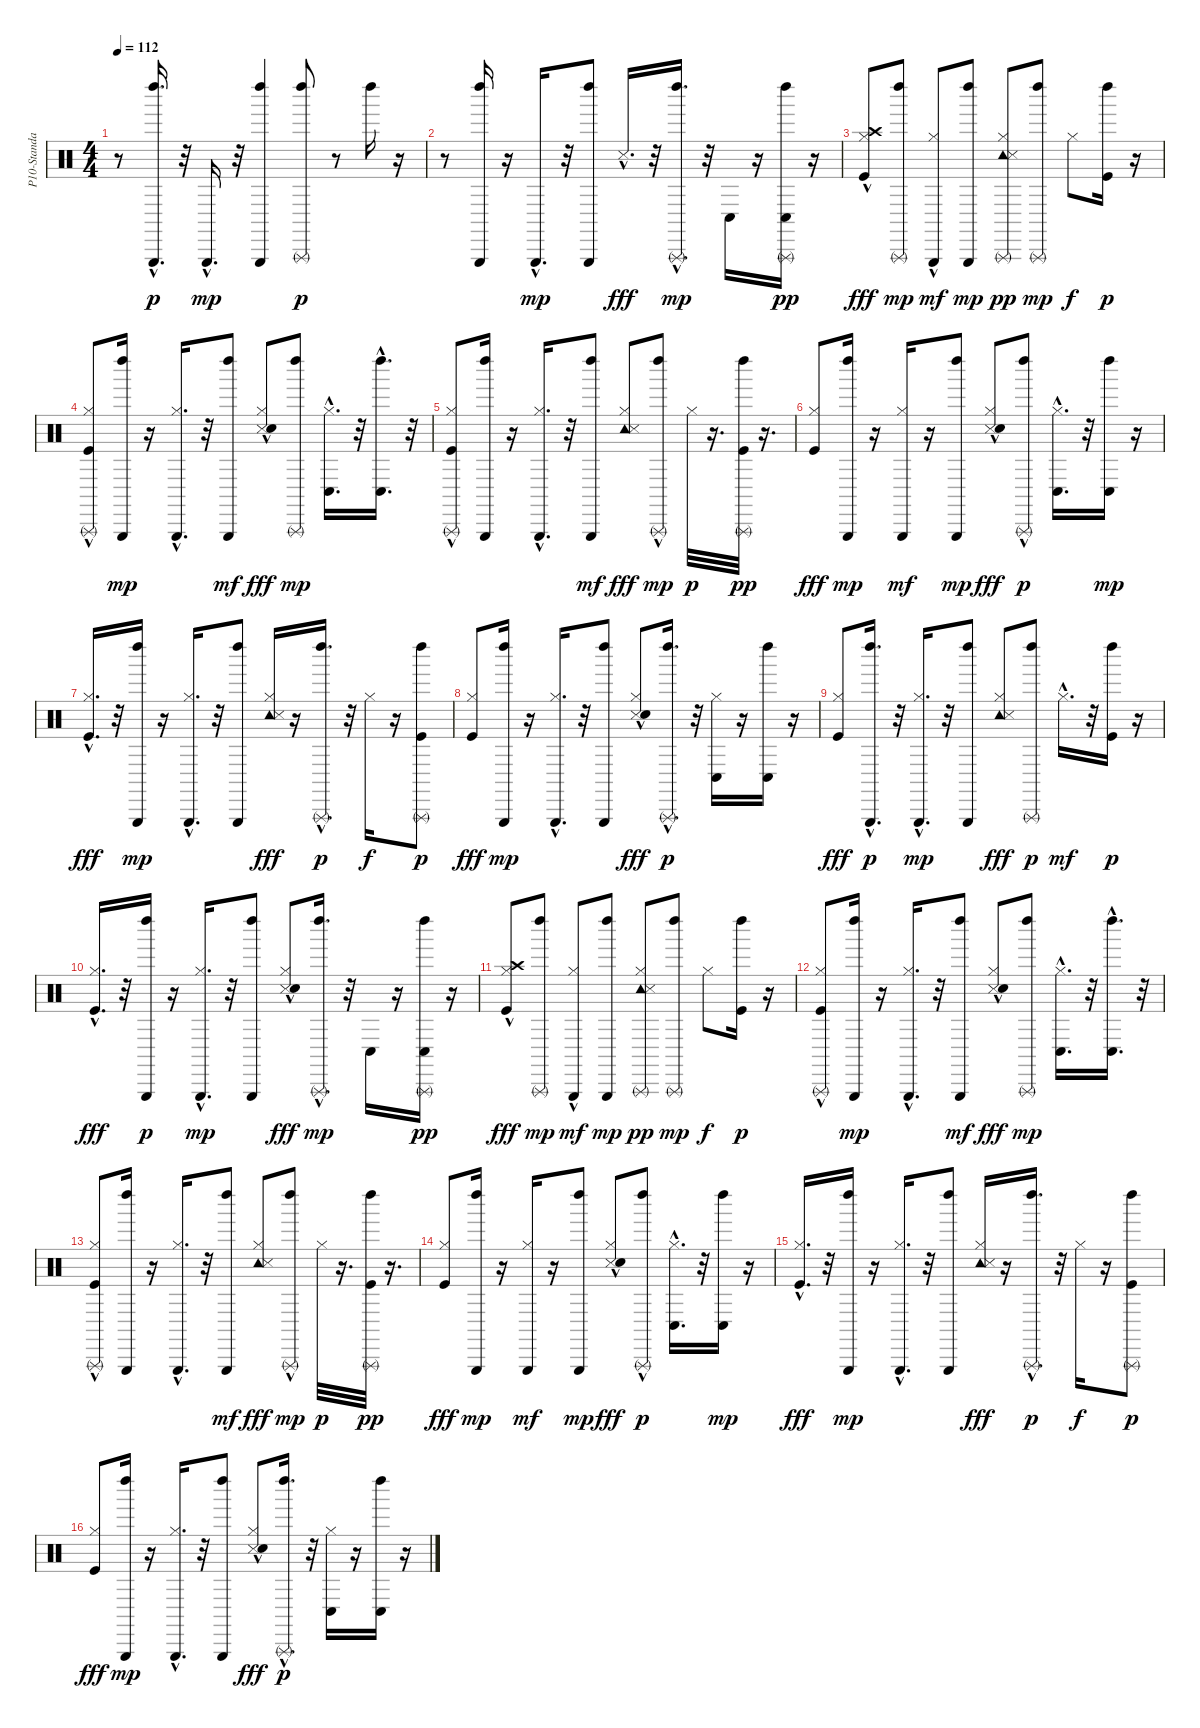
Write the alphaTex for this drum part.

\track ("P10-Standard Kit" "P10-Standa") {instrument percussion}
\staff {score}
\articulation defaults
\ts (4 4)
\tempo 112
\clef neutral
\ks c
r.8{dy p} ("Triangle (hit)"{hac} "Left Maraca (hit)").16{d} r.32 "Triangle (hit)"{hac}.16{d dy mp} r.32 ("Left Maraca (hit)" "Triangle (hit)").4 ("Triangle (rnute)" "Left Maraca (hit)").8{dy p} r.8 "Left Maraca (hit)".16 r.16 |
r.8 ("Triangle (hit)" "Left Maraca (hit)").16 r.16 "Triangle (hit)"{hac}.16{d dy mp} r.32 ("Triangle (hit)" "Left Maraca (hit)").8 "Snare (side stick) 3"{hac}.16{d dy fff} r.32 ("Triangle (rnute)"{hac} "Left Maraca (hit)").16{d dy mp} r.32 "Conga low (hit)".16 r.16 ("Triangle (rnute)" "Left Maraca (hit)" "Conga low (hit)").16{dy pp} r.16 |
("Hi-Hat (closed)" "Kick (hit)"{hac} "Crash high (hit)").8{dy fff} ("Left Maraca (hit)" "Triangle (rnute)").8{dy mp} ("Hi-Hat (closed)" "Triangle (hit)"{hac}).8{dy mf} ("Triangle (hit)" "Left Maraca (hit)").8{dy mp} ("Hi-Hat (closed)" "Tambourine (hit)" "Snare (side stick) 3" "Triangle (rnute)").8{dy pp} ("Left Maraca (hit)" "Triangle (rnute)").8{dy mp} "Hi-Hat (closed)".8{dy f} ("Kick (hit)" "Left Maraca (hit)").16{dy p} r.16 |
("Hi-Hat (closed)" "Kick (hit)"{hac} "Triangle (rnute)").8 ("Left Maraca (hit)" "Triangle (hit)").16{dy mp} r.16 ("Hi-Hat (closed)"{hac} "Triangle (hit)"{hac}).16{d} r.32 ("Left Maraca (hit)" "Triangle (hit)").8{dy mf} ("Hi-Hat (closed)" "Snare (side stick) 3"{hac} "Snare (hit)").8{dy fff} ("Triangle (rnute)" "Left Maraca (hit)").8{dy mp} ("Hi-Hat (closed)"{hac} "Conga low (hit)").16{d} r.32 ("Left Maraca (hit)" "Conga low (hit)"{hac}).16{d} r.32 |
("Hi-Hat (closed)"{hac} "Kick (hit)"{hac} "Triangle (rnute)").8 ("Left Maraca (hit)" "Triangle (hit)").16 r.16 ("Hi-Hat (closed)"{hac} "Triangle (hit)"{hac}).16{d} r.32 ("Left Maraca (hit)" "Triangle (hit)").8{dy mf} ("Tambourine (hit)" "Hi-Hat (closed)" "Snare (side stick) 3").8{dy fff} ("Triangle (rnute)"{hac} "Left Maraca (hit)").8{dy mp} "Hi-Hat (closed)".32{dy p} r.16{d} ("Kick (hit)" "Left Maraca (hit)" "Triangle (rnute)").32{dy pp} r.16{d} |
("Hi-Hat (closed)" "Kick (hit)").8{dy fff} ("Left Maraca (hit)" "Triangle (hit)").16{dy mp} r.16 ("Hi-Hat (closed)" "Triangle (hit)").16{dy mf} r.16 ("Left Maraca (hit)" "Triangle (hit)").8{dy mp} ("Snare (side stick) 3" "Hi-Hat (closed)"{hac} "Snare (hit)").8{dy fff} ("Left Maraca (hit)" "Triangle (rnute)"{hac}).8{dy p} ("Hi-Hat (closed)"{hac} "Conga low (hit)").16{d} r.32 ("Left Maraca (hit)" "Conga low (hit)").16{dy mp} r.16 |
("Hi-Hat (closed)" "Kick (hit)"{hac}).16{d dy fff} r.32 ("Left Maraca (hit)" "Triangle (hit)").16{dy mp} r.16 ("Hi-Hat (closed)" "Triangle (hit)"{hac}).16{d} r.32 ("Left Maraca (hit)" "Triangle (hit)").8 ("Hi-Hat (closed)" "Tambourine (hit)" "Snare (side stick) 3").16{dy fff} r.16 ("Triangle (rnute)"{hac} "Left Maraca (hit)").16{d dy p} r.32 "Hi-Hat (closed)".16{dy f} r.16 ("Kick (hit)" "Left Maraca (hit)" "Triangle (rnute)").8{dy p} |
("Hi-Hat (closed)" "Kick (hit)").8{dy fff} ("Left Maraca (hit)" "Triangle (hit)").16{dy mp} r.16 ("Hi-Hat (closed)" "Triangle (hit)"{hac}).16{d} r.32 ("Left Maraca (hit)" "Triangle (hit)").8 ("Hi-Hat (closed)" "Snare (side stick) 3" "Snare (hit)"{hac}).8{dy fff} ("Left Maraca (hit)" "Triangle (rnute)"{hac}).16{d dy p} r.32 ("Hi-Hat (closed)" "Conga low (hit)").16 r.16 ("Left Maraca (hit)" "Conga low (hit)").16 r.16 |
("Hi-Hat (closed)" "Kick (hit)").8{dy fff} ("Triangle (hit)"{hac} "Left Maraca (hit)").16{d dy p} r.32 ("Hi-Hat (closed)" "Triangle (hit)"{hac}).16{d dy mp} r.32 ("Left Maraca (hit)" "Triangle (hit)").8 ("Hi-Hat (closed)" "Tambourine (hit)" "Snare (side stick) 3").8{dy fff} ("Triangle (rnute)" "Left Maraca (hit)").8{dy p} "Hi-Hat (closed)"{hac}.16{d dy mf} r.32 ("Kick (hit)" "Left Maraca (hit)").16{dy p} r.16 |
("Hi-Hat (closed)" "Kick (hit)"{hac}).16{d dy fff} r.32 ("Triangle (hit)" "Left Maraca (hit)").16{dy p} r.16 ("Hi-Hat (closed)" "Triangle (hit)"{hac}).16{d dy mp} r.32 ("Triangle (hit)" "Left Maraca (hit)").8 ("Hi-Hat (closed)" "Snare (side stick) 3"{hac} "Snare (hit)").8{dy fff} ("Triangle (rnute)"{hac} "Left Maraca (hit)").16{d dy mp} r.32 "Conga low (hit)".16 r.16 ("Triangle (rnute)" "Left Maraca (hit)" "Conga low (hit)").16{dy pp} r.16 |
("Hi-Hat (closed)" "Kick (hit)"{hac} "Crash high (hit)").8{dy fff} ("Left Maraca (hit)" "Triangle (rnute)").8{dy mp} ("Hi-Hat (closed)" "Triangle (hit)"{hac}).8{dy mf} ("Triangle (hit)" "Left Maraca (hit)").8{dy mp} ("Hi-Hat (closed)" "Tambourine (hit)" "Snare (side stick) 3" "Triangle (rnute)").8{dy pp} ("Left Maraca (hit)" "Triangle (rnute)").8{dy mp} "Hi-Hat (closed)".8{dy f} ("Kick (hit)" "Left Maraca (hit)").16{dy p} r.16 |
("Hi-Hat (closed)" "Kick (hit)"{hac} "Triangle (rnute)").8 ("Left Maraca (hit)" "Triangle (hit)").16{dy mp} r.16 ("Hi-Hat (closed)"{hac} "Triangle (hit)"{hac}).16{d} r.32 ("Left Maraca (hit)" "Triangle (hit)").8{dy mf} ("Hi-Hat (closed)" "Snare (side stick) 3"{hac} "Snare (hit)").8{dy fff} ("Triangle (rnute)" "Left Maraca (hit)").8{dy mp} ("Hi-Hat (closed)"{hac} "Conga low (hit)").16{d} r.32 ("Left Maraca (hit)" "Conga low (hit)"{hac}).16{d} r.32 |
("Hi-Hat (closed)"{hac} "Kick (hit)"{hac} "Triangle (rnute)").8 ("Left Maraca (hit)" "Triangle (hit)").16 r.16 ("Hi-Hat (closed)"{hac} "Triangle (hit)"{hac}).16{d} r.32 ("Left Maraca (hit)" "Triangle (hit)").8{dy mf} ("Tambourine (hit)" "Hi-Hat (closed)" "Snare (side stick) 3").8{dy fff} ("Triangle (rnute)"{hac} "Left Maraca (hit)").8{dy mp} "Hi-Hat (closed)".32{dy p} r.16{d} ("Kick (hit)" "Left Maraca (hit)" "Triangle (rnute)").32{dy pp} r.16{d} |
("Hi-Hat (closed)" "Kick (hit)").8{dy fff} ("Left Maraca (hit)" "Triangle (hit)").16{dy mp} r.16 ("Hi-Hat (closed)" "Triangle (hit)").16{dy mf} r.16 ("Left Maraca (hit)" "Triangle (hit)").8{dy mp} ("Snare (side stick) 3" "Hi-Hat (closed)"{hac} "Snare (hit)").8{dy fff} ("Left Maraca (hit)" "Triangle (rnute)"{hac}).8{dy p} ("Hi-Hat (closed)"{hac} "Conga low (hit)").16{d} r.32 ("Left Maraca (hit)" "Conga low (hit)").16{dy mp} r.16 |
("Hi-Hat (closed)" "Kick (hit)"{hac}).16{d dy fff} r.32 ("Left Maraca (hit)" "Triangle (hit)").16{dy mp} r.16 ("Hi-Hat (closed)" "Triangle (hit)"{hac}).16{d} r.32 ("Left Maraca (hit)" "Triangle (hit)").8 ("Hi-Hat (closed)" "Tambourine (hit)" "Snare (side stick) 3").16{dy fff} r.16 ("Triangle (rnute)"{hac} "Left Maraca (hit)").16{d dy p} r.32 "Hi-Hat (closed)".16{dy f} r.16 ("Kick (hit)" "Left Maraca (hit)" "Triangle (rnute)").8{dy p} |
("Hi-Hat (closed)" "Kick (hit)").8{dy fff} ("Left Maraca (hit)" "Triangle (hit)").16{dy mp} r.16 ("Hi-Hat (closed)" "Triangle (hit)"{hac}).16{d} r.32 ("Left Maraca (hit)" "Triangle (hit)").8 ("Hi-Hat (closed)" "Snare (side stick) 3" "Snare (hit)"{hac}).8{dy fff} ("Left Maraca (hit)" "Triangle (rnute)"{hac}).16{d dy p} r.32 ("Hi-Hat (closed)" "Conga low (hit)").16 r.16 ("Left Maraca (hit)" "Conga low (hit)").16 r.16
